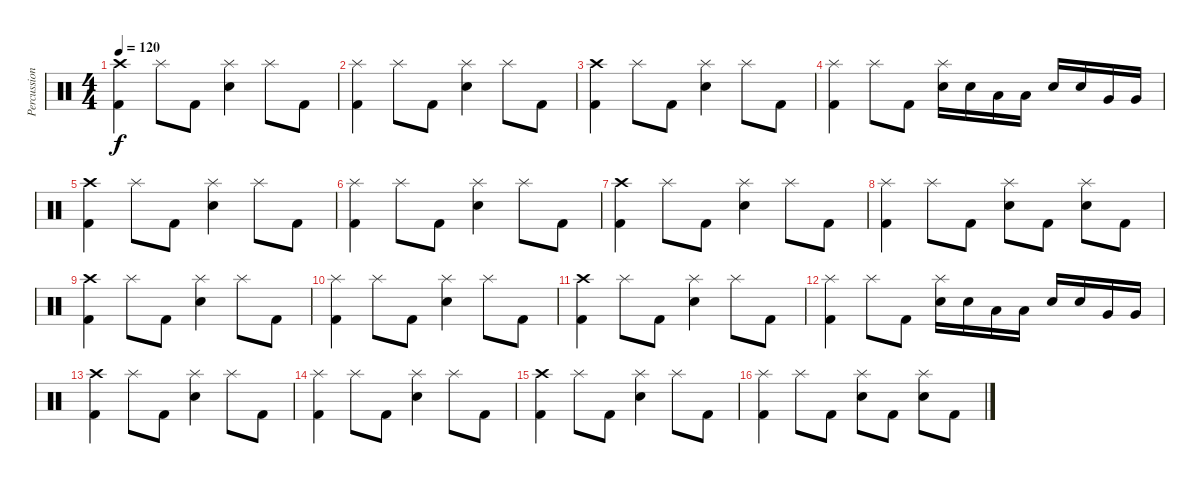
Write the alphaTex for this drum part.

\track ("Percussion" "Percussion") {instrument percussion}
\staff {score}
\articulation defaults
\ts (4 4)
\tempo 120
\clef neutral
\ks c
("Crash high (hit)" "Kick (hit) 2").4{dy f} "Splash (hit)".8 "Kick (hit) 2".8 ("Splash (hit)" "Electric Snare (hit)").4 "Splash (hit)".8 "Kick (hit) 2".8 |
("Splash (hit)" "Kick (hit) 2").4 "Splash (hit)".8 "Kick (hit) 2".8 ("Splash (hit)" "Electric Snare (hit)").4 "Splash (hit)".8 "Kick (hit) 2".8 |
("Crash high (hit)" "Kick (hit) 2").4 "Splash (hit)".8 "Kick (hit) 2".8 ("Splash (hit)" "Electric Snare (hit)").4 "Splash (hit)".8 "Kick (hit) 2".8 |
("Splash (hit)" "Kick (hit) 2").4 "Splash (hit)".8 "Kick (hit) 2".8 ("Splash (hit)" "Electric Snare (hit)").16 "Electric Snare (hit)".16 "Low Tom (hit)".16 "Low Tom (hit)".16 "Electric Snare (hit)".16 "Electric Snare (hit)".16 "Very Low Tom (hit)".16 "Very Low Tom (hit)".16 |
("Crash high (hit)" "Kick (hit) 2").4 "Splash (hit)".8 "Kick (hit) 2".8 ("Splash (hit)" "Electric Snare (hit)").4 "Splash (hit)".8 "Kick (hit) 2".8 |
("Splash (hit)" "Kick (hit) 2").4 "Splash (hit)".8 "Kick (hit) 2".8 ("Splash (hit)" "Electric Snare (hit)").4 "Splash (hit)".8 "Kick (hit) 2".8 |
("Crash high (hit)" "Kick (hit) 2").4 "Splash (hit)".8 "Kick (hit) 2".8 ("Splash (hit)" "Electric Snare (hit)").4 "Splash (hit)".8 "Kick (hit) 2".8 |
("Splash (hit)" "Kick (hit) 2").4 "Splash (hit)".8 "Kick (hit) 2".8 ("Splash (hit)" "Electric Snare (hit)").8 "Kick (hit) 2".8 ("Splash (hit)" "Electric Snare (hit)").8 "Kick (hit) 2".8 |
("Crash high (hit)" "Kick (hit) 2").4 "Splash (hit)".8 "Kick (hit) 2".8 ("Splash (hit)" "Electric Snare (hit)").4 "Splash (hit)".8 "Kick (hit) 2".8 |
("Splash (hit)" "Kick (hit) 2").4 "Splash (hit)".8 "Kick (hit) 2".8 ("Splash (hit)" "Electric Snare (hit)").4 "Splash (hit)".8 "Kick (hit) 2".8 |
("Crash high (hit)" "Kick (hit) 2").4 "Splash (hit)".8 "Kick (hit) 2".8 ("Splash (hit)" "Electric Snare (hit)").4 "Splash (hit)".8 "Kick (hit) 2".8 |
("Splash (hit)" "Kick (hit) 2").4 "Splash (hit)".8 "Kick (hit) 2".8 ("Splash (hit)" "Electric Snare (hit)").16 "Electric Snare (hit)".16 "Low Tom (hit)".16 "Low Tom (hit)".16 "Electric Snare (hit)".16 "Electric Snare (hit)".16 "Very Low Tom (hit)".16 "Very Low Tom (hit)".16 |
("Crash high (hit)" "Kick (hit) 2").4 "Splash (hit)".8 "Kick (hit) 2".8 ("Splash (hit)" "Electric Snare (hit)").4 "Splash (hit)".8 "Kick (hit) 2".8 |
("Splash (hit)" "Kick (hit) 2").4 "Splash (hit)".8 "Kick (hit) 2".8 ("Splash (hit)" "Electric Snare (hit)").4 "Splash (hit)".8 "Kick (hit) 2".8 |
("Crash high (hit)" "Kick (hit) 2").4 "Splash (hit)".8 "Kick (hit) 2".8 ("Splash (hit)" "Electric Snare (hit)").4 "Splash (hit)".8 "Kick (hit) 2".8 |
("Splash (hit)" "Kick (hit) 2").4 "Splash (hit)".8 "Kick (hit) 2".8 ("Splash (hit)" "Electric Snare (hit)").8 "Kick (hit) 2".8 ("Splash (hit)" "Electric Snare (hit)").8 "Kick (hit) 2".8
